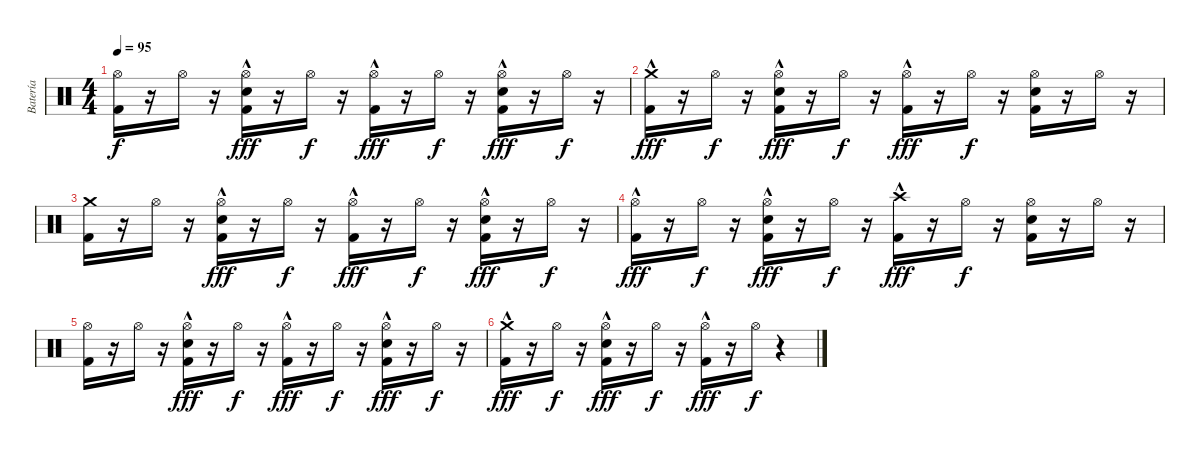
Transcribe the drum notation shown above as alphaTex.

\track ("Batería" "Batería") {instrument percussion}
\staff {score}
\articulation defaults
\ts (4 4)
\tempo 95
\clef neutral
\ks c
("Hi-Hat (open)" "Kick (hit) 2").16{dy f} r.16 "Hi-Hat (open)".16 r.16 ("Hi-Hat (open)"{hac} "Snare (hit) 2" "Kick (hit) 2").16{dy fff} r.16 "Hi-Hat (open)".16{dy f} r.16 ("Hi-Hat (open)"{hac} "Kick (hit) 2").16{dy fff} r.16 "Hi-Hat (open)".16{dy f} r.16 ("Hi-Hat (open)"{hac} "Snare (hit) 2" "Kick (hit) 2").16{dy fff} r.16 "Hi-Hat (open)".16{dy f} r.16 |
("Crash medium (hit)"{hac} "Kick (hit) 2").16{dy fff} r.16 "Hi-Hat (open)".16{dy f} r.16 ("Hi-Hat (open)"{hac} "Snare (hit) 2" "Kick (hit) 2").16{dy fff} r.16 "Hi-Hat (open)".16{dy f} r.16 ("Hi-Hat (open)"{hac} "Kick (hit) 2").16{dy fff} r.16 "Hi-Hat (open)".16{dy f} r.16 ("Hi-Hat (open)" "Snare (hit) 2" "Kick (hit) 2").16 r.16 "Hi-Hat (open)".16 r.16 |
("Crash medium (hit)" "Kick (hit) 2").16 r.16 "Hi-Hat (open)".16 r.16 ("Hi-Hat (open)"{hac} "Snare (hit) 2" "Kick (hit) 2").16{dy fff} r.16 "Hi-Hat (open)".16{dy f} r.16 ("Hi-Hat (open)"{hac} "Kick (hit) 2").16{dy fff} r.16 "Hi-Hat (open)".16{dy f} r.16 ("Hi-Hat (open)"{hac} "Snare (hit) 2" "Kick (hit) 2").16{dy fff} r.16 "Hi-Hat (open)".16{dy f} r.16 |
("Hi-Hat (open)"{hac} "Kick (hit) 2").16{dy fff} r.16 "Hi-Hat (open)".16{dy f} r.16 ("Hi-Hat (open)"{hac} "Snare (hit) 2" "Kick (hit) 2").16{dy fff} r.16 "Hi-Hat (open)".16{dy f} r.16 ("Crash high (hit)"{hac} "Kick (hit) 2").16{dy fff} r.16 "Hi-Hat (open)".16{dy f} r.16 ("Hi-Hat (open)" "Snare (hit) 2" "Kick (hit) 2").16 r.16 "Hi-Hat (open)".16 r.16 |
("Hi-Hat (open)" "Kick (hit) 2").16 r.16 "Hi-Hat (open)".16 r.16 ("Hi-Hat (open)"{hac} "Snare (hit) 2" "Kick (hit) 2").16{dy fff} r.16 "Hi-Hat (open)".16{dy f} r.16 ("Hi-Hat (open)"{hac} "Kick (hit) 2").16{dy fff} r.16 "Hi-Hat (open)".16{dy f} r.16 ("Hi-Hat (open)"{hac} "Snare (hit) 2" "Kick (hit) 2").16{dy fff} r.16 "Hi-Hat (open)".16{dy f} r.16 |
("Crash medium (hit)"{hac} "Kick (hit) 2").16{dy fff} r.16 "Hi-Hat (open)".16{dy f} r.16 ("Hi-Hat (open)"{hac} "Snare (hit) 2" "Kick (hit) 2").16{dy fff} r.16 "Hi-Hat (open)".16{dy f} r.16 ("Hi-Hat (open)"{hac} "Kick (hit) 2").16{dy fff} r.16 "Hi-Hat (open)".16{dy f} r.4
